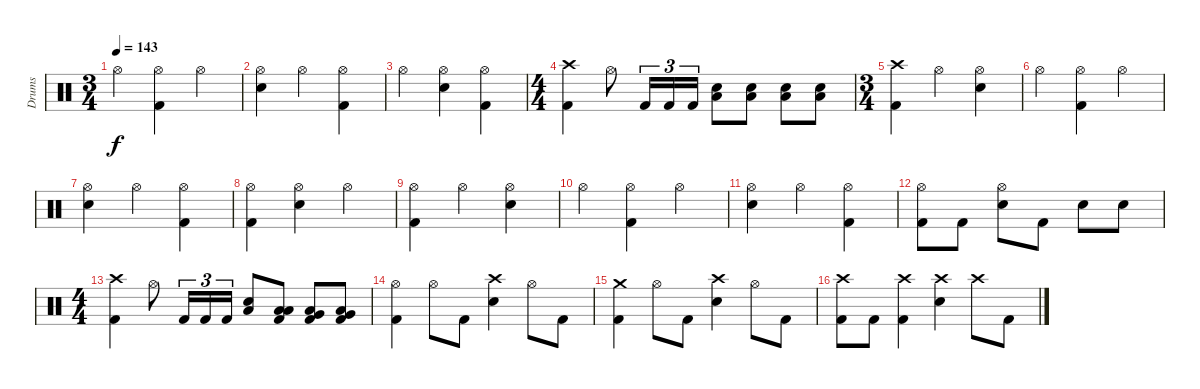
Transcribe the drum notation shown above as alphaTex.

\track ("Drums" "Drums") {instrument percussion}
\staff {score}
\articulation defaults
\ts (3 4)
\tempo 143
\clef neutral
\ks c "Hi-Hat (open)".4{dy f}
("Hi-Hat (open)" "Kick (hit) 2").4 "Hi-Hat (open)".4 |
("Hi-Hat (open)" "Electric Snare (hit)").4 "Hi-Hat (open)".4 ("Hi-Hat (open)" "Kick (hit) 2").4 |
"Hi-Hat (open)".4 ("Hi-Hat (open)" "Electric Snare (hit)").4 ("Hi-Hat (open)" "Kick (hit) 2").4 |
\ts (4 4)
("Crash high (hit)" "Kick (hit) 2").4 "Hi-Hat (open)".8 "Kick (hit) 2".16{tu (3 2)} "Kick (hit) 2".16{tu (3 2)} "Kick (hit) 2".16{tu (3 2)} ("Electric Snare (hit)" "Low Floor Tom (hit)").8 ("Electric Snare (hit)" "Low Floor Tom (hit)").8 ("Electric Snare (hit)" "Low Floor Tom (hit)").8 ("Electric Snare (hit)" "Low Floor Tom (hit)").8 |
\ts (3 4)
("Crash high (hit)" "Kick (hit) 2").4 "Hi-Hat (open)".4 ("Hi-Hat (open)" "Electric Snare (hit)").4 |
"Hi-Hat (open)".4 ("Hi-Hat (open)" "Kick (hit) 2").4 "Hi-Hat (open)".4 |
("Hi-Hat (open)" "Electric Snare (hit)").4 "Hi-Hat (open)".4 ("Hi-Hat (open)" "Kick (hit) 2").4 |
("Hi-Hat (open)" "Kick (hit) 2").4 ("Hi-Hat (open)" "Electric Snare (hit)").4 "Hi-Hat (open)".4 |
("Hi-Hat (open)" "Kick (hit) 2").4 "Hi-Hat (open)".4 ("Hi-Hat (open)" "Electric Snare (hit)").4 |
"Hi-Hat (open)".4 ("Hi-Hat (open)" "Kick (hit) 2").4 "Hi-Hat (open)".4 |
("Hi-Hat (open)" "Electric Snare (hit)").4 "Hi-Hat (open)".4 ("Hi-Hat (open)" "Kick (hit) 2").4 |
("Hi-Hat (open)" "Kick (hit) 2").8 "Kick (hit) 2".8 ("Hi-Hat (open)" "Electric Snare (hit)").8 "Kick (hit) 2".8 "Electric Snare (hit)".8 "Electric Snare (hit)".8 |
\ts (4 4)
("Crash high (hit)" "Kick (hit) 2").4 "Hi-Hat (open)".8 "Kick (hit) 2".16{tu (3 2)} "Kick (hit) 2".16{tu (3 2)} "Kick (hit) 2".16{tu (3 2)} ("Electric Snare (hit)" "Low Floor Tom (hit)").8 ("Low Tom (hit)" "Low Floor Tom (hit)" "Kick (hit) 2").8 ("Very Low Tom (hit)" "Low Floor Tom (hit)" "Kick (hit) 2").8 ("Very Low Tom (hit)" "Low Floor Tom (hit)" "Kick (hit) 2").8 |
("Hi-Hat (open)" "Kick (hit) 2").4 "Hi-Hat (open)".8 "Kick (hit) 2".8 ("Crash high (hit)" "Electric Snare (hit)").4 "Hi-Hat (open)".8 "Kick (hit) 2".8 |
("Crash medium (hit)" "Kick (hit) 2").4 "Hi-Hat (open)".8 "Kick (hit) 2".8 ("Crash high (hit)" "Electric Snare (hit)").4 "Hi-Hat (open)".8 "Kick (hit) 2".8 |
("Crash high (hit)" "Kick (hit) 2").8 "Kick (hit) 2".8 ("Crash high (hit)" "Kick (hit) 2").4 ("Crash high (hit)" "Electric Snare (hit)").4 "Crash high (hit)".8 "Kick (hit) 2".8
